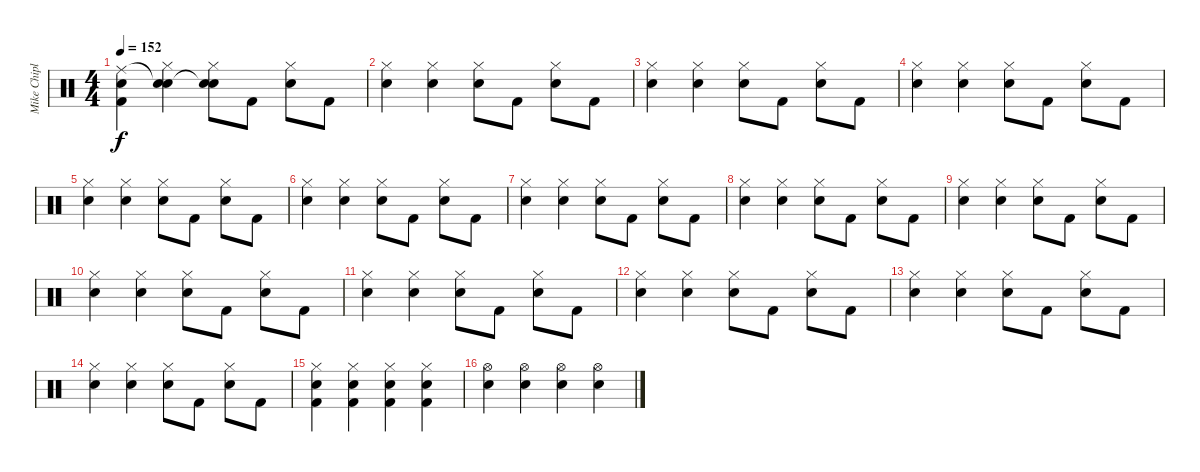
\track ("Mike Chiplin" "Mike Chipl") {instrument percussion}
\staff {score}
\articulation defaults
\ts (4 4)
\tempo 152
\clef neutral
\ks c
("Ride (middle)" "Snare (hit) 2" "Kick (hit) 2").4{dy f} ("Snare (hit)"{t} "Hi-Hat (closed)" "Snare (hit) 2").4 ("Snare (hit)"{t} "Hi-Hat (closed)" "Snare (hit) 2").8 "Kick (hit) 2".8 ("Hi-Hat (closed)" "Snare (hit) 2").8 "Kick (hit) 2".8 |
("Hi-Hat (closed)" "Snare (hit) 2").4 ("Hi-Hat (closed)" "Snare (hit) 2").4 ("Hi-Hat (closed)" "Snare (hit) 2").8 "Kick (hit) 2".8 ("Hi-Hat (closed)" "Snare (hit) 2").8 "Kick (hit) 2".8 |
("Hi-Hat (closed)" "Snare (hit) 2").4 ("Hi-Hat (closed)" "Snare (hit) 2").4 ("Hi-Hat (closed)" "Snare (hit) 2").8 "Kick (hit) 2".8 ("Hi-Hat (closed)" "Snare (hit) 2").8 "Kick (hit) 2".8 |
("Hi-Hat (closed)" "Snare (hit) 2").4 ("Hi-Hat (closed)" "Snare (hit) 2").4 ("Hi-Hat (closed)" "Snare (hit) 2").8 "Kick (hit) 2".8 ("Hi-Hat (closed)" "Snare (hit) 2").8 "Kick (hit) 2".8 |
("Hi-Hat (closed)" "Snare (hit) 2").4 ("Hi-Hat (closed)" "Snare (hit) 2").4 ("Hi-Hat (closed)" "Snare (hit) 2").8 "Kick (hit) 2".8 ("Hi-Hat (closed)" "Snare (hit) 2").8 "Kick (hit) 2".8 |
("Hi-Hat (closed)" "Snare (hit) 2").4 ("Hi-Hat (closed)" "Snare (hit) 2").4 ("Hi-Hat (closed)" "Snare (hit) 2").8 "Kick (hit) 2".8 ("Hi-Hat (closed)" "Snare (hit) 2").8 "Kick (hit) 2".8 |
("Hi-Hat (closed)" "Snare (hit) 2").4 ("Hi-Hat (closed)" "Snare (hit) 2").4 ("Hi-Hat (closed)" "Snare (hit) 2").8 "Kick (hit) 2".8 ("Hi-Hat (closed)" "Snare (hit) 2").8 "Kick (hit) 2".8 |
("Hi-Hat (closed)" "Snare (hit) 2").4 ("Hi-Hat (closed)" "Snare (hit) 2").4 ("Hi-Hat (closed)" "Snare (hit) 2").8 "Kick (hit) 2".8 ("Hi-Hat (closed)" "Snare (hit) 2").8 "Kick (hit) 2".8 |
("Hi-Hat (closed)" "Snare (hit) 2").4 ("Hi-Hat (closed)" "Snare (hit) 2").4 ("Hi-Hat (closed)" "Snare (hit) 2").8 "Kick (hit) 2".8 ("Hi-Hat (closed)" "Snare (hit) 2").8 "Kick (hit) 2".8 |
("Hi-Hat (closed)" "Snare (hit) 2").4 ("Hi-Hat (closed)" "Snare (hit) 2").4 ("Hi-Hat (closed)" "Snare (hit) 2").8 "Kick (hit) 2".8 ("Hi-Hat (closed)" "Snare (hit) 2").8 "Kick (hit) 2".8 |
("Hi-Hat (closed)" "Snare (hit) 2").4 ("Hi-Hat (closed)" "Snare (hit) 2").4 ("Hi-Hat (closed)" "Snare (hit) 2").8 "Kick (hit) 2".8 ("Hi-Hat (closed)" "Snare (hit) 2").8 "Kick (hit) 2".8 |
("Hi-Hat (closed)" "Snare (hit) 2").4 ("Hi-Hat (closed)" "Snare (hit) 2").4 ("Hi-Hat (closed)" "Snare (hit) 2").8 "Kick (hit) 2".8 ("Hi-Hat (closed)" "Snare (hit) 2").8 "Kick (hit) 2".8 |
("Hi-Hat (closed)" "Snare (hit) 2").4 ("Hi-Hat (closed)" "Snare (hit) 2").4 ("Hi-Hat (closed)" "Snare (hit) 2").8 "Kick (hit) 2".8 ("Hi-Hat (closed)" "Snare (hit) 2").8 "Kick (hit) 2".8 |
("Hi-Hat (closed)" "Snare (hit) 2").4 ("Hi-Hat (closed)" "Snare (hit) 2").4 ("Hi-Hat (closed)" "Snare (hit) 2").8 "Kick (hit) 2".8 ("Hi-Hat (closed)" "Snare (hit) 2").8 "Kick (hit) 2".8 |
("Hi-Hat (closed)" "Snare (hit) 2" "Kick (hit) 2").4 ("Hi-Hat (closed)" "Snare (hit) 2" "Kick (hit) 2").4 ("Hi-Hat (closed)" "Snare (hit) 2" "Kick (hit) 2").4 ("Hi-Hat (closed)" "Snare (hit) 2" "Kick (hit) 2").4 |
("Hi-Hat (open)" "Snare (hit) 2").4 ("Hi-Hat (open)" "Snare (hit) 2").4 ("Hi-Hat (open)" "Snare (hit) 2").4 ("Hi-Hat (open)" "Snare (hit) 2").4
